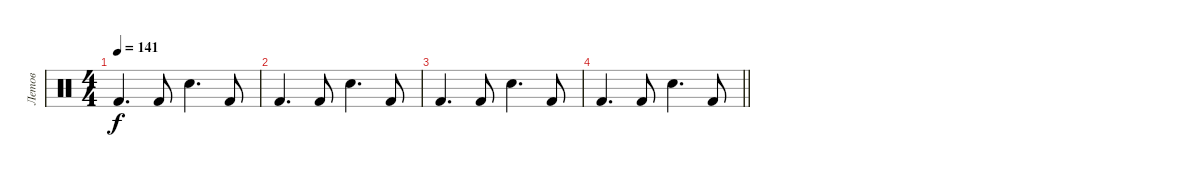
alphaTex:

\track ("Летов" "Летов") {instrument percussion}
\staff {score}
\articulation defaults
\ts (4 4)
\tempo 141
\clef neutral
\ks c "Kick (hit) 2".4{d dy f} "Kick (hit) 2".8 "Electric Snare (hit)".4{d} "Kick (hit) 2".8
|
"Kick (hit) 2".4{d} "Kick (hit) 2".8 "Electric Snare (hit)".4{d} "Kick (hit) 2".8 |
"Kick (hit) 2".4{d} "Kick (hit) 2".8 "Electric Snare (hit)".4{d} "Kick (hit) 2".8 |
\barLineRight lightlight "Kick (hit) 2".4{d} "Kick (hit) 2".8 "Electric Snare (hit)".4{d} "Kick (hit) 2".8
